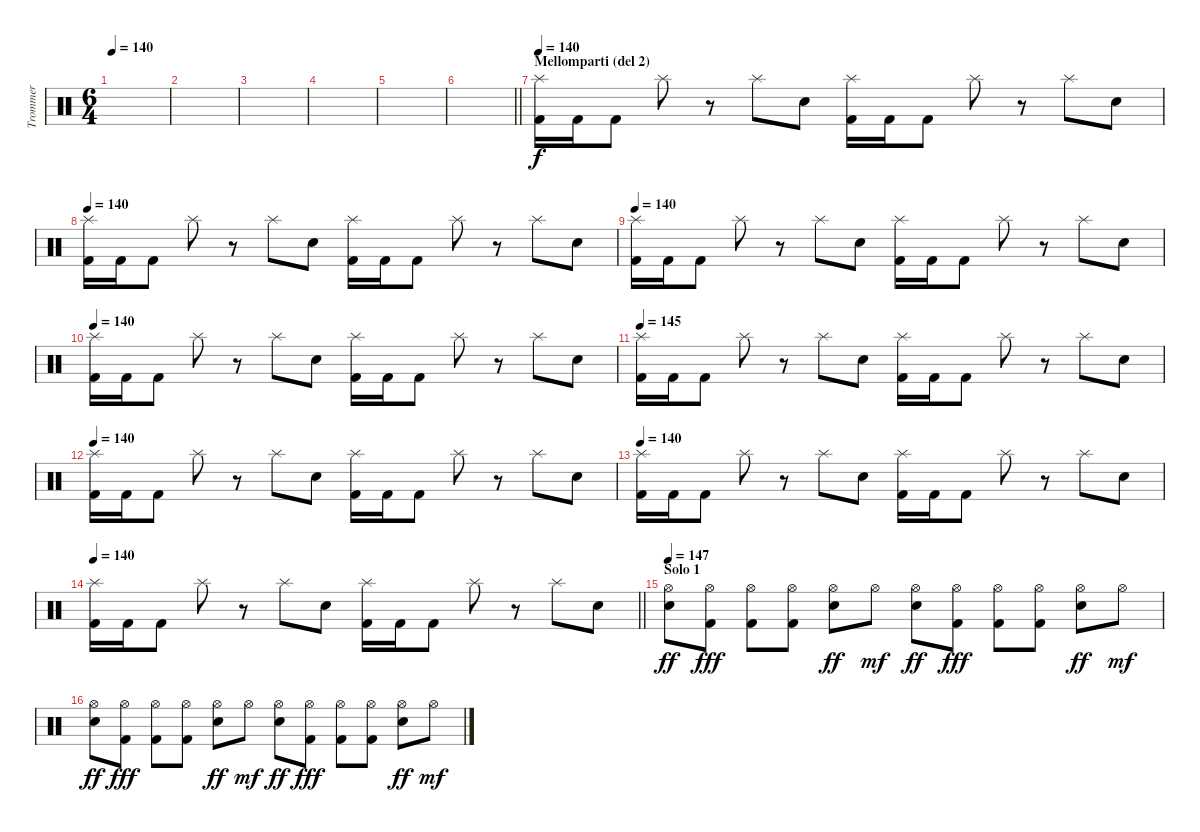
\track ("Trommer" "Trommer") {instrument percussion}
\staff {score}
\articulation defaults
\ts (6 4)
\tempo 140
\clef neutral
\ks c
|
|
|
|
|
\barLineRight lightlight
|
\section ("" "Mellomparti (del 2)")
\tempo 140
("Splash (hit)" "Kick (hit) 2").16 "Kick (hit) 2".16 "Kick (hit) 2".8 "Splash (hit)".8 r.8 "Splash (hit)".8 "Snare (hit) 2".8 ("Splash (hit)" "Kick (hit) 2").16 "Kick (hit) 2".16 "Kick (hit) 2".8 "Splash (hit)".8 r.8 "Splash (hit)".8 "Snare (hit) 2".8 |
\tempo 140
("Splash (hit)" "Kick (hit) 2").16 "Kick (hit) 2".16 "Kick (hit) 2".8 "Splash (hit)".8 r.8 "Splash (hit)".8 "Snare (hit) 2".8 ("Splash (hit)" "Kick (hit) 2").16 "Kick (hit) 2".16 "Kick (hit) 2".8 "Splash (hit)".8 r.8 "Splash (hit)".8 "Snare (hit) 2".8 |
\tempo 140
("Splash (hit)" "Kick (hit) 2").16 "Kick (hit) 2".16 "Kick (hit) 2".8 "Splash (hit)".8 r.8 "Splash (hit)".8 "Snare (hit) 2".8 ("Splash (hit)" "Kick (hit) 2").16 "Kick (hit) 2".16 "Kick (hit) 2".8 "Splash (hit)".8 r.8 "Splash (hit)".8 "Snare (hit) 2".8 |
\tempo 140
("Splash (hit)" "Kick (hit) 2").16 "Kick (hit) 2".16 "Kick (hit) 2".8 "Splash (hit)".8 r.8 "Splash (hit)".8 "Snare (hit) 2".8 ("Splash (hit)" "Kick (hit) 2").16 "Kick (hit) 2".16 "Kick (hit) 2".8 "Splash (hit)".8 r.8 "Splash (hit)".8 "Snare (hit) 2".8 |
\tempo 140
\tempo 145
("Splash (hit)" "Kick (hit) 2").16 "Kick (hit) 2".16 "Kick (hit) 2".8 "Splash (hit)".8 r.8 "Splash (hit)".8 "Snare (hit) 2".8 ("Splash (hit)" "Kick (hit) 2").16 "Kick (hit) 2".16 "Kick (hit) 2".8 "Splash (hit)".8 r.8 "Splash (hit)".8 "Snare (hit) 2".8 |
\tempo 140
("Splash (hit)" "Kick (hit) 2").16 "Kick (hit) 2".16 "Kick (hit) 2".8 "Splash (hit)".8 r.8 "Splash (hit)".8 "Snare (hit) 2".8 ("Splash (hit)" "Kick (hit) 2").16 "Kick (hit) 2".16 "Kick (hit) 2".8 "Splash (hit)".8 r.8 "Splash (hit)".8 "Snare (hit) 2".8 |
\tempo 140
("Splash (hit)" "Kick (hit) 2").16 "Kick (hit) 2".16 "Kick (hit) 2".8 "Splash (hit)".8 r.8 "Splash (hit)".8 "Snare (hit) 2".8 ("Splash (hit)" "Kick (hit) 2").16 "Kick (hit) 2".16 "Kick (hit) 2".8 "Splash (hit)".8 r.8 "Splash (hit)".8 "Snare (hit) 2".8 |
\tempo 140
\barLineRight lightlight
("Splash (hit)" "Kick (hit) 2").16 "Kick (hit) 2".16 "Kick (hit) 2".8 "Splash (hit)".8 r.8 "Splash (hit)".8 "Snare (hit) 2".8 ("Splash (hit)" "Kick (hit) 2").16 "Kick (hit) 2".16 "Kick (hit) 2".8 "Splash (hit)".8 r.8 "Splash (hit)".8 "Snare (hit) 2".8 |
\section ("" "Solo 1")
\tempo 147
("Hi-Hat (open)" "Electric Snare (hit)").8{dy ff} ("Hi-Hat (open)" "Kick (hit) 2").8{dy fff} ("Hi-Hat (open)" "Kick (hit) 2").8 ("Hi-Hat (open)" "Kick (hit) 2").8 ("Hi-Hat (open)" "Electric Snare (hit)").8{dy ff} "Hi-Hat (open)".8{dy mf} ("Hi-Hat (open)" "Electric Snare (hit)").8{dy ff} ("Hi-Hat (open)" "Kick (hit) 2").8{dy fff} ("Hi-Hat (open)" "Kick (hit) 2").8 ("Hi-Hat (open)" "Kick (hit) 2").8 ("Hi-Hat (open)" "Electric Snare (hit)").8{dy ff} "Hi-Hat (open)".8{dy mf} |
("Hi-Hat (open)" "Electric Snare (hit)").8{dy ff} ("Hi-Hat (open)" "Kick (hit) 2").8{dy fff} ("Hi-Hat (open)" "Kick (hit) 2").8 ("Hi-Hat (open)" "Kick (hit) 2").8 ("Hi-Hat (open)" "Electric Snare (hit)").8{dy ff} "Hi-Hat (open)".8{dy mf} ("Hi-Hat (open)" "Electric Snare (hit)").8{dy ff} ("Hi-Hat (open)" "Kick (hit) 2").8{dy fff} ("Hi-Hat (open)" "Kick (hit) 2").8 ("Hi-Hat (open)" "Kick (hit) 2").8 ("Hi-Hat (open)" "Electric Snare (hit)").8{dy ff} "Hi-Hat (open)".8{dy mf}
